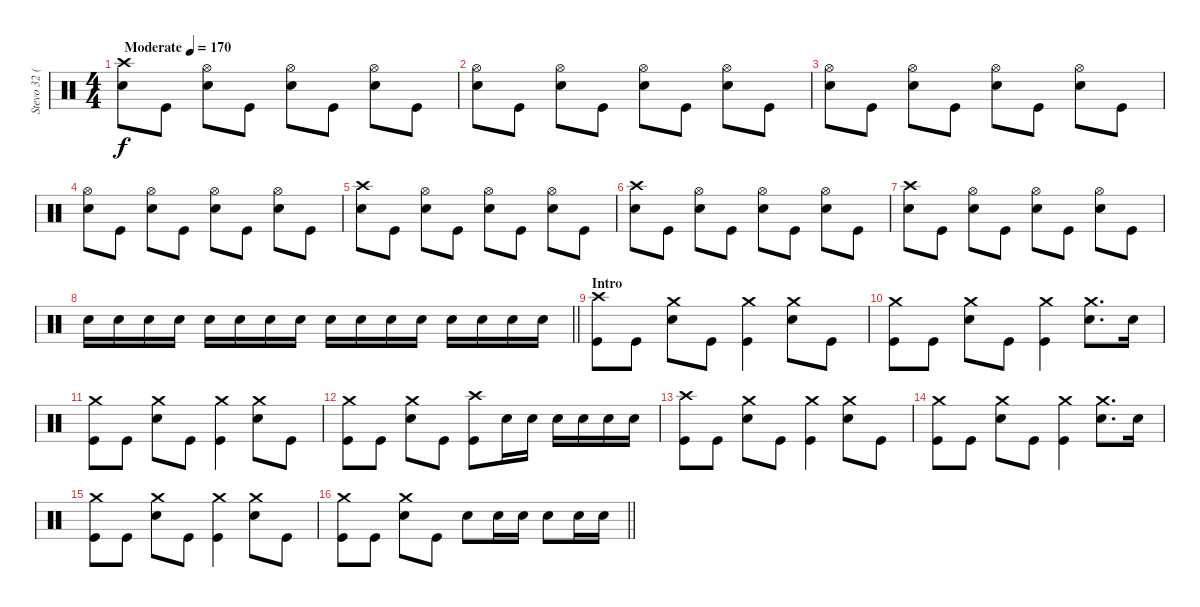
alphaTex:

\track ("Stevo 32 (Drums)" "Stevo 32 (") {instrument percussion}
\staff {score}
\articulation defaults
\ts (4 4)
\tempo (170 "Moderate")
\clef neutral
\ks c
("Crash high (hit)" "Electric Snare (hit)").8{dy f} "Kick (hit)".8 ("Hi-Hat (open)" "Electric Snare (hit)").8 "Kick (hit)".8 ("Hi-Hat (open)" "Electric Snare (hit)").8 "Kick (hit)".8 ("Hi-Hat (open)" "Electric Snare (hit)").8 "Kick (hit)".8 |
("Hi-Hat (open)" "Electric Snare (hit)").8 "Kick (hit)".8 ("Hi-Hat (open)" "Electric Snare (hit)").8 "Kick (hit)".8 ("Hi-Hat (open)" "Electric Snare (hit)").8 "Kick (hit)".8 ("Hi-Hat (open)" "Electric Snare (hit)").8 "Kick (hit)".8 |
("Hi-Hat (open)" "Electric Snare (hit)").8 "Kick (hit)".8 ("Hi-Hat (open)" "Electric Snare (hit)").8 "Kick (hit)".8 ("Hi-Hat (open)" "Electric Snare (hit)").8 "Kick (hit)".8 ("Hi-Hat (open)" "Electric Snare (hit)").8 "Kick (hit)".8 |
("Hi-Hat (open)" "Electric Snare (hit)").8 "Kick (hit)".8 ("Hi-Hat (open)" "Electric Snare (hit)").8 "Kick (hit)".8 ("Hi-Hat (open)" "Electric Snare (hit)").8 "Kick (hit)".8 ("Hi-Hat (open)" "Electric Snare (hit)").8 "Kick (hit)".8 |
("Crash high (hit)" "Electric Snare (hit)").8 "Kick (hit)".8 ("Hi-Hat (open)" "Electric Snare (hit)").8 "Kick (hit)".8 ("Hi-Hat (open)" "Electric Snare (hit)").8 "Kick (hit)".8 ("Hi-Hat (open)" "Electric Snare (hit)").8 "Kick (hit)".8 |
("Crash high (hit)" "Electric Snare (hit)").8 "Kick (hit)".8 ("Hi-Hat (open)" "Electric Snare (hit)").8 "Kick (hit)".8 ("Hi-Hat (open)" "Electric Snare (hit)").8 "Kick (hit)".8 ("Hi-Hat (open)" "Electric Snare (hit)").8 "Kick (hit)".8 |
("Crash high (hit)" "Electric Snare (hit)").8 "Kick (hit)".8 ("Hi-Hat (open)" "Electric Snare (hit)").8 "Kick (hit)".8 ("Hi-Hat (open)" "Electric Snare (hit)").8 "Kick (hit)".8 ("Hi-Hat (open)" "Electric Snare (hit)").8 "Kick (hit)".8 |
\barLineRight lightlight "Electric Snare (hit)".16 "Electric Snare (hit)".16 "Electric Snare (hit)".16 "Electric Snare (hit)".16 "Electric Snare (hit)".16 "Electric Snare (hit)".16 "Electric Snare (hit)".16 "Electric Snare (hit)".16 "Electric Snare (hit)".16 "Electric Snare (hit)".16 "Electric Snare (hit)".16 "Electric Snare (hit)".16 "Electric Snare (hit)".16 "Electric Snare (hit)".16 "Electric Snare (hit)".16 "Electric Snare (hit)".16
|
\section ("" "Intro")
("Crash high (hit)" "Kick (hit)").8 "Kick (hit)".8 ("Crash medium (hit)" "Electric Snare (hit)").8 "Kick (hit)".8 ("Crash medium (hit)" "Kick (hit)").4 ("Crash medium (hit)" "Electric Snare (hit)").8 "Kick (hit)".8 |
("Crash medium (hit)" "Kick (hit)").8 "Kick (hit)".8 ("Crash medium (hit)" "Electric Snare (hit)").8 "Kick (hit)".8 ("Crash medium (hit)" "Kick (hit)").4 ("Crash medium (hit)" "Electric Snare (hit)").8{d} "Electric Snare (hit)".16 |
("Crash medium (hit)" "Kick (hit)").8 "Kick (hit)".8 ("Crash medium (hit)" "Electric Snare (hit)").8 "Kick (hit)".8 ("Crash medium (hit)" "Kick (hit)").4 ("Crash medium (hit)" "Electric Snare (hit)").8 "Kick (hit)".8 |
("Crash medium (hit)" "Kick (hit)").8 "Kick (hit)".8 ("Crash medium (hit)" "Electric Snare (hit)").8 "Kick (hit)".8 ("Crash high (hit)" "Kick (hit)").8 "Electric Snare (hit)".16 "Electric Snare (hit)".16 "Electric Snare (hit)".16 "Electric Snare (hit)".16 "Electric Snare (hit)".16 "Electric Snare (hit)".16 |
("Crash high (hit)" "Kick (hit)").8 "Kick (hit)".8 ("Crash medium (hit)" "Electric Snare (hit)").8 "Kick (hit)".8 ("Crash medium (hit)" "Kick (hit)").4 ("Crash medium (hit)" "Electric Snare (hit)").8 "Kick (hit)".8 |
("Crash medium (hit)" "Kick (hit)").8 "Kick (hit)".8 ("Crash medium (hit)" "Electric Snare (hit)").8 "Kick (hit)".8 ("Crash medium (hit)" "Kick (hit)").4 ("Crash medium (hit)" "Electric Snare (hit)").8{d} "Electric Snare (hit)".16 |
("Crash medium (hit)" "Kick (hit)").8 "Kick (hit)".8 ("Crash medium (hit)" "Electric Snare (hit)").8 "Kick (hit)".8 ("Crash medium (hit)" "Kick (hit)").4 ("Crash medium (hit)" "Electric Snare (hit)").8 "Kick (hit)".8 |
\barLineRight lightlight
("Crash medium (hit)" "Kick (hit)").8 "Kick (hit)".8 ("Crash medium (hit)" "Electric Snare (hit)").8 "Kick (hit)".8 "Electric Snare (hit)".8 "Electric Snare (hit)".16 "Electric Snare (hit)".16 "Electric Snare (hit)".8 "Electric Snare (hit)".16 "Electric Snare (hit)".16
